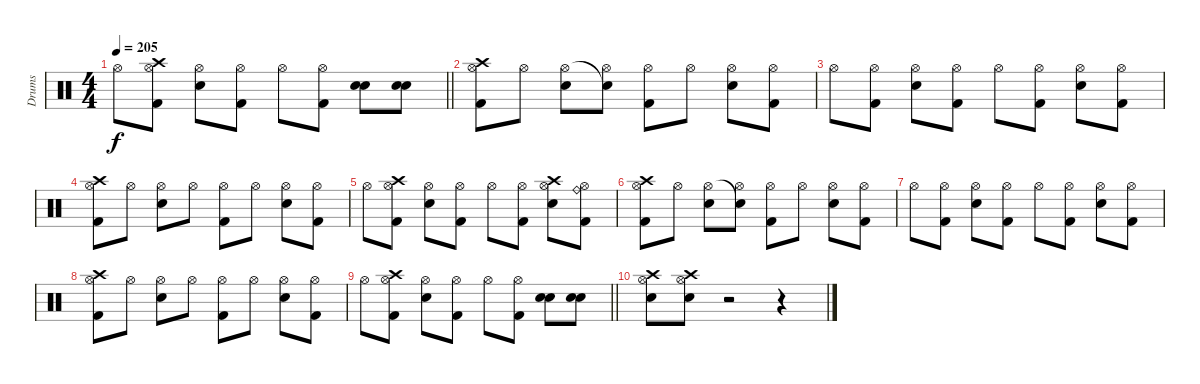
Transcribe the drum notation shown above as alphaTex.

\track ("Drums" "Drums") {instrument percussion}
\staff {score}
\articulation defaults
\ts (4 4)
\tempo 205
\clef neutral
\barLineRight lightlight
\ks c "Hi-Hat (open)".8{dy f}
("Crash high (hit)" "Hi-Hat (open)" "Kick (hit) 2").8 ("Hi-Hat (open)" "Electric Snare (hit)").8 ("Hi-Hat (open)" "Kick (hit) 2").8 "Hi-Hat (open)".8 ("Hi-Hat (open)" "Kick (hit) 2").8 ("Electric Snare (hit)" "Electric Snare (hit)").8 ("Electric Snare (hit)" "Electric Snare (hit)").8 |
("Crash high (hit)" "Hi-Hat (open)" "Kick (hit) 2").8 "Hi-Hat (open)".8 ("Hi-Hat (open)" "Electric Snare (hit)").8 ("Snare (hit)"{t} "Hi-Hat (open)").8 ("Hi-Hat (open)" "Kick (hit) 2").8 "Hi-Hat (open)".8 ("Hi-Hat (open)" "Electric Snare (hit)").8 ("Hi-Hat (open)" "Kick (hit) 2").8 |
"Hi-Hat (open)".8 ("Hi-Hat (open)" "Kick (hit) 2").8 ("Hi-Hat (open)" "Electric Snare (hit)").8 ("Hi-Hat (open)" "Kick (hit) 2").8 "Hi-Hat (open)".8 ("Hi-Hat (open)" "Kick (hit) 2").8 ("Hi-Hat (open)" "Electric Snare (hit)").8 ("Hi-Hat (open)" "Kick (hit) 2").8 |
("Crash high (hit)" "Hi-Hat (open)" "Kick (hit) 2").8 "Hi-Hat (open)".8 ("Hi-Hat (open)" "Electric Snare (hit)").8 "Hi-Hat (open)".8 ("Hi-Hat (open)" "Kick (hit) 2").8 "Hi-Hat (open)".8 ("Hi-Hat (open)" "Electric Snare (hit)").8 ("Hi-Hat (open)" "Kick (hit) 2").8 |
"Hi-Hat (open)".8 ("Crash high (hit)" "Hi-Hat (open)" "Kick (hit) 2").8 ("Hi-Hat (open)" "Electric Snare (hit)").8 ("Hi-Hat (open)" "Kick (hit) 2").8 "Hi-Hat (open)".8 ("Hi-Hat (open)" "Kick (hit) 2").8 ("Crash high (hit)" "Hi-Hat (open)" "Electric Snare (hit)").8 ("Ride (bell)" "Hi-Hat (open)" "Kick (hit) 2").8 |
("Crash high (hit)" "Hi-Hat (open)" "Kick (hit) 2").8 "Hi-Hat (open)".8 ("Hi-Hat (open)" "Electric Snare (hit)").8 ("Snare (hit)"{t} "Hi-Hat (open)").8 ("Hi-Hat (open)" "Kick (hit) 2").8 "Hi-Hat (open)".8 ("Hi-Hat (open)" "Electric Snare (hit)").8 ("Hi-Hat (open)" "Kick (hit) 2").8 |
"Hi-Hat (open)".8 ("Hi-Hat (open)" "Kick (hit) 2").8 ("Hi-Hat (open)" "Electric Snare (hit)").8 ("Hi-Hat (open)" "Kick (hit) 2").8 "Hi-Hat (open)".8 ("Hi-Hat (open)" "Kick (hit) 2").8 ("Hi-Hat (open)" "Electric Snare (hit)").8 ("Hi-Hat (open)" "Kick (hit) 2").8 |
("Crash high (hit)" "Hi-Hat (open)" "Kick (hit) 2").8 "Hi-Hat (open)".8 ("Hi-Hat (open)" "Electric Snare (hit)").8 "Hi-Hat (open)".8 ("Hi-Hat (open)" "Kick (hit) 2").8 "Hi-Hat (open)".8 ("Hi-Hat (open)" "Electric Snare (hit)").8 ("Hi-Hat (open)" "Kick (hit) 2").8 |
\barLineRight lightlight "Hi-Hat (open)".8
("Crash high (hit)" "Hi-Hat (open)" "Kick (hit) 2").8 ("Hi-Hat (open)" "Electric Snare (hit)").8 ("Hi-Hat (open)" "Kick (hit) 2").8 "Hi-Hat (open)".8 ("Hi-Hat (open)" "Kick (hit) 2").8 ("Electric Snare (hit)" "Electric Snare (hit)").8 ("Electric Snare (hit)" "Electric Snare (hit)").8 |
("Crash high (hit)" "Hi-Hat (open)" "Electric Snare (hit)").8 ("Crash high (hit)" "Hi-Hat (open)" "Electric Snare (hit)").8 r.2 r.4
